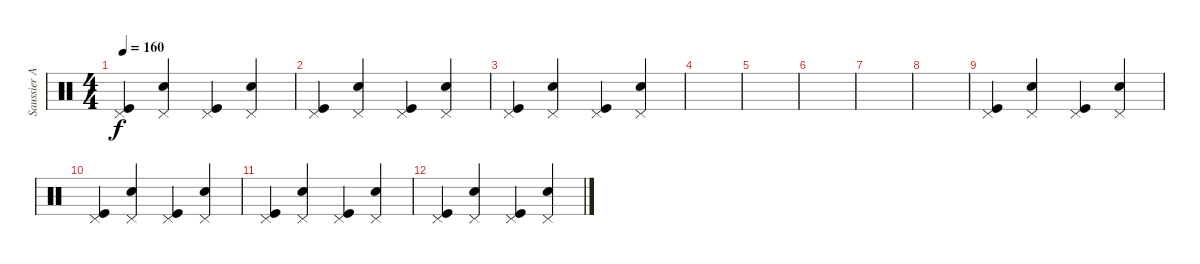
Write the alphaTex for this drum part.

\track ("Saussier Arthur" "Saussier A") {instrument percussion}
\staff {score}
\articulation defaults
\ts (4 4)
\tempo 160
\clef neutral
\ks c
("Pedal Hi-Hat (hit)" "Kick (hit)").4{dy f} ("Pedal Hi-Hat (hit)" "Electric Snare (hit)").4 ("Pedal Hi-Hat (hit)" "Kick (hit)").4 ("Pedal Hi-Hat (hit)" "Electric Snare (hit)").4 |
("Pedal Hi-Hat (hit)" "Kick (hit)").4 ("Pedal Hi-Hat (hit)" "Electric Snare (hit)").4 ("Pedal Hi-Hat (hit)" "Kick (hit)").4 ("Pedal Hi-Hat (hit)" "Electric Snare (hit)").4 |
("Pedal Hi-Hat (hit)" "Kick (hit)").4 ("Pedal Hi-Hat (hit)" "Electric Snare (hit)").4 ("Pedal Hi-Hat (hit)" "Kick (hit)").4 ("Pedal Hi-Hat (hit)" "Electric Snare (hit)").4 |
|
|
|
|
|
("Pedal Hi-Hat (hit)" "Kick (hit)").4 ("Pedal Hi-Hat (hit)" "Electric Snare (hit)").4 ("Pedal Hi-Hat (hit)" "Kick (hit)").4 ("Pedal Hi-Hat (hit)" "Electric Snare (hit)").4 |
("Pedal Hi-Hat (hit)" "Kick (hit)").4 ("Pedal Hi-Hat (hit)" "Electric Snare (hit)").4 ("Pedal Hi-Hat (hit)" "Kick (hit)").4 ("Pedal Hi-Hat (hit)" "Electric Snare (hit)").4 |
("Pedal Hi-Hat (hit)" "Kick (hit)").4 ("Pedal Hi-Hat (hit)" "Electric Snare (hit)").4 ("Pedal Hi-Hat (hit)" "Kick (hit)").4 ("Pedal Hi-Hat (hit)" "Electric Snare (hit)").4 |
("Pedal Hi-Hat (hit)" "Kick (hit)").4 ("Pedal Hi-Hat (hit)" "Electric Snare (hit)").4 ("Pedal Hi-Hat (hit)" "Kick (hit)").4 ("Pedal Hi-Hat (hit)" "Electric Snare (hit)").4
